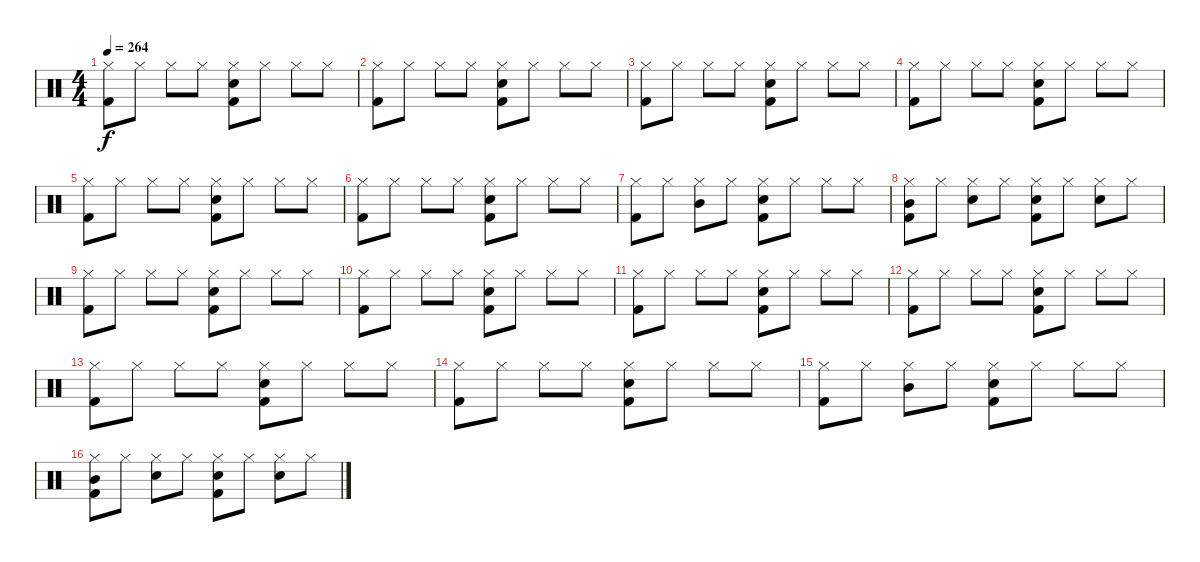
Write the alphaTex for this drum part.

\track "" {instrument percussion}
\staff {score}
\articulation defaults
\ts (4 4)
\tempo 264
\clef neutral
\ks c
("Kick (hit) 2" "Hi-Hat (closed)").8{dy f} "Hi-Hat (closed)".8 "Hi-Hat (closed)".8 "Hi-Hat (closed)".8 ("Snare (hit) 2" "Kick (hit) 2" "Hi-Hat (closed)").8 "Hi-Hat (closed)".8 "Hi-Hat (closed)".8 "Hi-Hat (closed)".8 |
("Kick (hit) 2" "Hi-Hat (closed)").8 "Hi-Hat (closed)".8 "Hi-Hat (closed)".8 "Hi-Hat (closed)".8 ("Snare (hit) 2" "Kick (hit) 2" "Hi-Hat (closed)").8 "Hi-Hat (closed)".8 "Hi-Hat (closed)".8 "Hi-Hat (closed)".8 |
("Kick (hit) 2" "Hi-Hat (closed)").8 "Hi-Hat (closed)".8 "Hi-Hat (closed)".8 "Hi-Hat (closed)".8 ("Snare (hit) 2" "Kick (hit) 2" "Hi-Hat (closed)").8 "Hi-Hat (closed)".8 "Hi-Hat (closed)".8 "Hi-Hat (closed)".8 |
("Kick (hit) 2" "Hi-Hat (closed)").8 "Hi-Hat (closed)".8 "Hi-Hat (closed)".8 "Hi-Hat (closed)".8 ("Snare (hit) 2" "Kick (hit) 2" "Hi-Hat (closed)").8 "Hi-Hat (closed)".8 "Hi-Hat (closed)".8 "Hi-Hat (closed)".8 |
("Kick (hit) 2" "Hi-Hat (closed)").8 "Hi-Hat (closed)".8 "Hi-Hat (closed)".8 "Hi-Hat (closed)".8 ("Snare (hit) 2" "Kick (hit) 2" "Hi-Hat (closed)").8 "Hi-Hat (closed)".8 "Hi-Hat (closed)".8 "Hi-Hat (closed)".8 |
("Kick (hit) 2" "Hi-Hat (closed)").8 "Hi-Hat (closed)".8 "Hi-Hat (closed)".8 "Hi-Hat (closed)".8 ("Snare (hit) 2" "Kick (hit) 2" "Hi-Hat (closed)").8 "Hi-Hat (closed)".8 "Hi-Hat (closed)".8 "Hi-Hat (closed)".8 |
("Kick (hit) 2" "Hi-Hat (closed)").8 "Hi-Hat (closed)".8 ("Mid Tom (hit)" "Hi-Hat (closed)").8 "Hi-Hat (closed)".8 ("Snare (hit) 2" "Kick (hit) 2" "Hi-Hat (closed)").8 "Hi-Hat (closed)".8 "Hi-Hat (closed)".8 "Hi-Hat (closed)".8 |
("Mid Tom (hit)" "Kick (hit) 2" "Hi-Hat (closed)").8 "Hi-Hat (closed)".8 ("Snare (hit) 2" "Hi-Hat (closed)").8 "Hi-Hat (closed)".8 ("Snare (hit) 2" "Kick (hit) 2" "Hi-Hat (closed)").8 "Hi-Hat (closed)".8 ("Snare (hit) 2" "Hi-Hat (closed)").8 "Hi-Hat (closed)".8 |
("Kick (hit) 2" "Hi-Hat (closed)").8 "Hi-Hat (closed)".8 "Hi-Hat (closed)".8 "Hi-Hat (closed)".8 ("Snare (hit) 2" "Kick (hit) 2" "Hi-Hat (closed)").8 "Hi-Hat (closed)".8 "Hi-Hat (closed)".8 "Hi-Hat (closed)".8 |
("Kick (hit) 2" "Hi-Hat (closed)").8 "Hi-Hat (closed)".8 "Hi-Hat (closed)".8 "Hi-Hat (closed)".8 ("Snare (hit) 2" "Kick (hit) 2" "Hi-Hat (closed)").8 "Hi-Hat (closed)".8 "Hi-Hat (closed)".8 "Hi-Hat (closed)".8 |
("Kick (hit) 2" "Hi-Hat (closed)").8 "Hi-Hat (closed)".8 "Hi-Hat (closed)".8 "Hi-Hat (closed)".8 ("Snare (hit) 2" "Kick (hit) 2" "Hi-Hat (closed)").8 "Hi-Hat (closed)".8 "Hi-Hat (closed)".8 "Hi-Hat (closed)".8 |
("Kick (hit) 2" "Hi-Hat (closed)").8 "Hi-Hat (closed)".8 "Hi-Hat (closed)".8 "Hi-Hat (closed)".8 ("Snare (hit) 2" "Kick (hit) 2" "Hi-Hat (closed)").8 "Hi-Hat (closed)".8 "Hi-Hat (closed)".8 "Hi-Hat (closed)".8 |
("Kick (hit) 2" "Hi-Hat (closed)").8 "Hi-Hat (closed)".8 "Hi-Hat (closed)".8 "Hi-Hat (closed)".8 ("Snare (hit) 2" "Kick (hit) 2" "Hi-Hat (closed)").8 "Hi-Hat (closed)".8 "Hi-Hat (closed)".8 "Hi-Hat (closed)".8 |
("Kick (hit) 2" "Hi-Hat (closed)").8 "Hi-Hat (closed)".8 "Hi-Hat (closed)".8 "Hi-Hat (closed)".8 ("Snare (hit) 2" "Kick (hit) 2" "Hi-Hat (closed)").8 "Hi-Hat (closed)".8 "Hi-Hat (closed)".8 "Hi-Hat (closed)".8 |
("Kick (hit) 2" "Hi-Hat (closed)").8 "Hi-Hat (closed)".8 ("Mid Tom (hit)" "Hi-Hat (closed)").8 "Hi-Hat (closed)".8 ("Snare (hit) 2" "Kick (hit) 2" "Hi-Hat (closed)").8 "Hi-Hat (closed)".8 "Hi-Hat (closed)".8 "Hi-Hat (closed)".8 |
("Mid Tom (hit)" "Kick (hit) 2" "Hi-Hat (closed)").8 "Hi-Hat (closed)".8 ("Snare (hit) 2" "Hi-Hat (closed)").8 "Hi-Hat (closed)".8 ("Snare (hit) 2" "Kick (hit) 2" "Hi-Hat (closed)").8 "Hi-Hat (closed)".8 ("Snare (hit) 2" "Hi-Hat (closed)").8 "Hi-Hat (closed)".8
